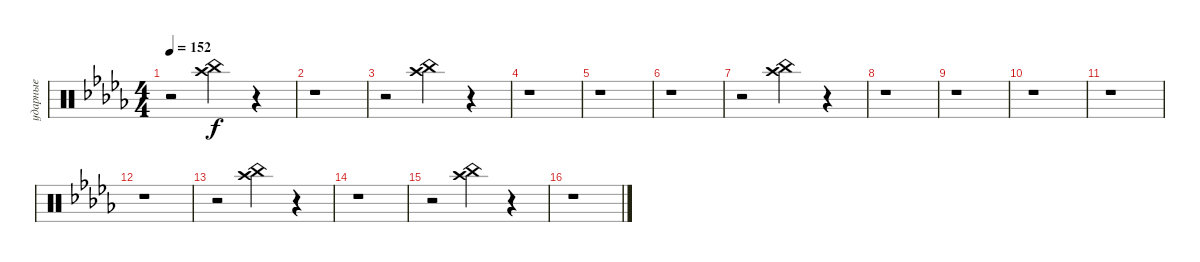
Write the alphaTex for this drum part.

\track ("ударные" "ударные") {instrument percussion}
\staff {score}
\articulation defaults
\ts (4 4)
\tempo 152
\clef neutral
\ks bbminor
r.2{dy f} ("China (hit)" "Crash high (hit)").4 r.4 |
r.1 |
r.2 ("China (hit)" "Crash high (hit)").4 r.4 |
r.1 |
r.1 |
r.1 |
r.2 ("China (hit)" "Crash high (hit)").4 r.4 |
r.1 |
r.1 |
r.1 |
r.1 |
r.1 |
r.2 ("China (hit)" "Crash high (hit)").4 r.4 |
r.1 |
r.2 ("China (hit)" "Crash high (hit)").4 r.4 |
r.1
